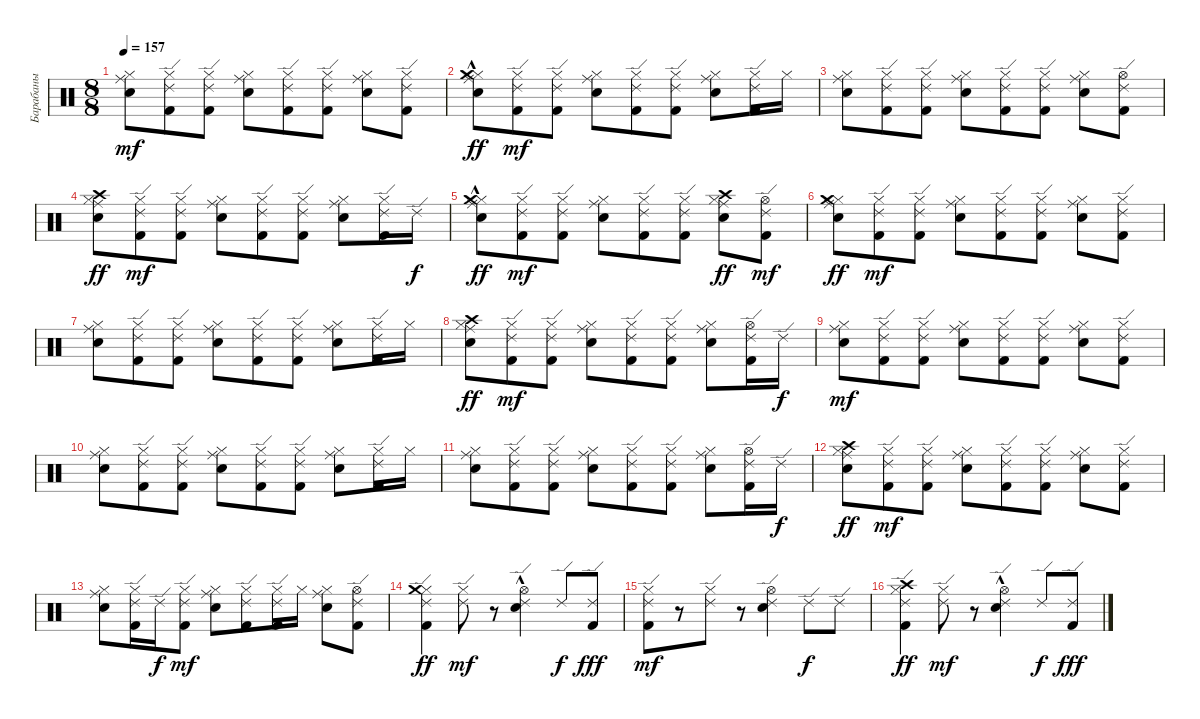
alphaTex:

\track ("Барабаны" "Барабаны") {instrument percussion}
\staff {score}
\articulation defaults
\ts (8 8)
\tempo 157
\clef neutral
\ks c
("Snare (hit) 2" "Hi-Hat (closed)" "Ride (middle)").8{dy mf} ("Kick (hit) 2" "Hi-Hat (closed)" "Ride (edge) 2").8 ("Kick (hit) 2" "Hi-Hat (closed)" "Ride (edge) 2").8 ("Snare (hit) 2" "Hi-Hat (closed)" "Ride (middle)").8 ("Kick (hit) 2" "Hi-Hat (closed)" "Ride (edge) 2").8 ("Kick (hit) 2" "Hi-Hat (closed)" "Ride (edge) 2").8 ("Snare (hit) 2" "Hi-Hat (closed)" "Ride (middle)").8 ("Kick (hit) 2" "Hi-Hat (closed)" "Ride (edge) 2").8 |
("Snare (hit) 2" "Hi-Hat (closed)" "Ride (middle)" "Crash medium (hit)"{hac}).8{dy ff} ("Kick (hit) 2" "Hi-Hat (closed)" "Ride (edge) 2").8{dy mf} ("Kick (hit) 2" "Hi-Hat (closed)" "Ride (edge) 2").8 ("Snare (hit) 2" "Hi-Hat (closed)" "Ride (middle)").8 ("Kick (hit) 2" "Hi-Hat (closed)" "Ride (edge) 2").8 ("Kick (hit) 2" "Hi-Hat (closed)" "Ride (edge) 2").8 ("Snare (hit) 2" "Hi-Hat (closed)" "Ride (middle)").8 ("Kick (hit) 2" "Hi-Hat (closed)" "Ride (edge) 2").16 "Hi-Hat (closed)".16 |
("Snare (hit) 2" "Hi-Hat (closed)" "Ride (middle)").8 ("Kick (hit) 2" "Hi-Hat (closed)" "Ride (edge) 2").8 ("Kick (hit) 2" "Hi-Hat (closed)" "Ride (edge) 2").8 ("Snare (hit) 2" "Hi-Hat (closed)" "Ride (middle)").8 ("Kick (hit) 2" "Hi-Hat (closed)" "Ride (edge) 2").8 ("Kick (hit) 2" "Hi-Hat (closed)" "Ride (edge) 2").8 ("Snare (hit) 2" "Hi-Hat (closed)" "Ride (middle)").8 ("Kick (hit) 2" "Hi-Hat (open)" "Ride (edge) 2").8 |
("Snare (hit) 2" "Hi-Hat (closed)" "Ride (middle)" "Crash high (hit)").8{dy ff} ("Kick (hit) 2" "Hi-Hat (closed)" "Ride (edge) 2").8{dy mf} ("Kick (hit) 2" "Hi-Hat (closed)" "Ride (edge) 2").8 ("Snare (hit) 2" "Hi-Hat (closed)" "Ride (middle)").8 ("Kick (hit) 2" "Hi-Hat (closed)" "Ride (edge) 2").8 ("Kick (hit) 2" "Hi-Hat (closed)" "Ride (edge) 2").8 ("Snare (hit) 2" "Hi-Hat (closed)" "Ride (middle)").8 ("Kick (hit) 2" "Hi-Hat (closed)" "Ride (edge) 2").16 "Ride (edge) 2".16{dy f} |
("Snare (hit) 2" "Hi-Hat (closed)" "Ride (middle)" "Crash medium (hit)"{hac}).8{dy ff} ("Kick (hit) 2" "Hi-Hat (closed)" "Ride (edge) 2").8{dy mf} ("Kick (hit) 2" "Hi-Hat (closed)" "Ride (edge) 2").8 ("Snare (hit) 2" "Hi-Hat (closed)" "Ride (middle)").8 ("Kick (hit) 2" "Hi-Hat (closed)" "Ride (edge) 2").8 ("Kick (hit) 2" "Hi-Hat (closed)" "Ride (edge) 2").8 ("Snare (hit) 2" "Hi-Hat (closed)" "Ride (middle)" "Crash high (hit)").8{dy ff} ("Kick (hit) 2" "Hi-Hat (open)" "Ride (edge) 2").8{dy mf} |
("Snare (hit) 2" "Hi-Hat (closed)" "Ride (middle)" "Crash medium (hit)").8{dy ff} ("Kick (hit) 2" "Hi-Hat (closed)" "Ride (edge) 2").8{dy mf} ("Kick (hit) 2" "Hi-Hat (closed)" "Ride (edge) 2").8 ("Snare (hit) 2" "Hi-Hat (closed)" "Ride (middle)").8 ("Kick (hit) 2" "Hi-Hat (closed)" "Ride (edge) 2").8 ("Kick (hit) 2" "Hi-Hat (closed)" "Ride (edge) 2").8 ("Snare (hit) 2" "Hi-Hat (closed)" "Ride (middle)").8 ("Kick (hit) 2" "Hi-Hat (closed)" "Ride (edge) 2").8 |
("Snare (hit) 2" "Hi-Hat (closed)" "Ride (middle)").8 ("Kick (hit) 2" "Hi-Hat (closed)" "Ride (edge) 2").8 ("Kick (hit) 2" "Hi-Hat (closed)" "Ride (edge) 2").8 ("Snare (hit) 2" "Hi-Hat (closed)" "Ride (middle)").8 ("Kick (hit) 2" "Hi-Hat (closed)" "Ride (edge) 2").8 ("Kick (hit) 2" "Hi-Hat (closed)" "Ride (edge) 2").8 ("Snare (hit) 2" "Hi-Hat (closed)" "Ride (middle)").8 ("Kick (hit) 2" "Hi-Hat (closed)" "Ride (edge) 2").16 "Hi-Hat (closed)".16 |
("Snare (hit) 2" "Hi-Hat (closed)" "Ride (middle)" "Crash high (hit)").8{dy ff} ("Kick (hit) 2" "Hi-Hat (closed)" "Ride (edge) 2").8{dy mf} ("Kick (hit) 2" "Hi-Hat (closed)" "Ride (edge) 2").8 ("Snare (hit) 2" "Hi-Hat (closed)" "Ride (middle)").8 ("Kick (hit) 2" "Hi-Hat (closed)" "Ride (edge) 2").8 ("Kick (hit) 2" "Hi-Hat (closed)" "Ride (edge) 2").8 ("Snare (hit) 2" "Hi-Hat (closed)" "Ride (middle)").8 ("Kick (hit) 2" "Hi-Hat (open)" "Ride (edge) 2").16 "Ride (edge) 2".16{dy f} |
("Snare (hit) 2" "Hi-Hat (closed)" "Ride (middle)").8{dy mf} ("Kick (hit) 2" "Hi-Hat (closed)" "Ride (edge) 2").8 ("Kick (hit) 2" "Hi-Hat (closed)" "Ride (edge) 2").8 ("Snare (hit) 2" "Hi-Hat (closed)" "Ride (middle)").8 ("Kick (hit) 2" "Hi-Hat (closed)" "Ride (edge) 2").8 ("Kick (hit) 2" "Hi-Hat (closed)" "Ride (edge) 2").8 ("Snare (hit) 2" "Hi-Hat (closed)" "Ride (middle)").8 ("Kick (hit) 2" "Hi-Hat (closed)" "Ride (edge) 2").8 |
("Snare (hit) 2" "Hi-Hat (closed)" "Ride (middle)").8 ("Kick (hit) 2" "Hi-Hat (closed)" "Ride (edge) 2").8 ("Kick (hit) 2" "Hi-Hat (closed)" "Ride (edge) 2").8 ("Snare (hit) 2" "Hi-Hat (closed)" "Ride (middle)").8 ("Kick (hit) 2" "Hi-Hat (closed)" "Ride (edge) 2").8 ("Kick (hit) 2" "Hi-Hat (closed)" "Ride (edge) 2").8 ("Snare (hit) 2" "Hi-Hat (closed)" "Ride (middle)").8 ("Kick (hit) 2" "Hi-Hat (closed)" "Ride (edge) 2").16 "Hi-Hat (closed)".16 |
("Snare (hit) 2" "Hi-Hat (closed)" "Ride (middle)").8 ("Kick (hit) 2" "Hi-Hat (closed)" "Ride (edge) 2").8 ("Kick (hit) 2" "Hi-Hat (closed)" "Ride (edge) 2").8 ("Snare (hit) 2" "Hi-Hat (closed)" "Ride (middle)").8 ("Kick (hit) 2" "Hi-Hat (closed)" "Ride (edge) 2").8 ("Kick (hit) 2" "Hi-Hat (closed)" "Ride (edge) 2").8 ("Snare (hit) 2" "Hi-Hat (closed)" "Ride (middle)").8 ("Kick (hit) 2" "Hi-Hat (open)" "Ride (edge) 2").16 "Ride (edge) 2".16{dy f} |
("Snare (hit) 2" "Hi-Hat (closed)" "Ride (middle)" "Crash high (hit)").8{dy ff} ("Kick (hit) 2" "Hi-Hat (closed)" "Ride (edge) 2").8{dy mf} ("Kick (hit) 2" "Hi-Hat (closed)" "Ride (edge) 2").8 ("Snare (hit) 2" "Hi-Hat (closed)" "Ride (middle)").8 ("Kick (hit) 2" "Hi-Hat (closed)" "Ride (edge) 2").8 ("Kick (hit) 2" "Hi-Hat (closed)" "Ride (edge) 2").8 ("Snare (hit) 2" "Hi-Hat (closed)" "Ride (middle)").8 ("Kick (hit) 2" "Hi-Hat (closed)" "Ride (edge) 2").8 |
("Snare (hit) 2" "Hi-Hat (closed)" "Ride (middle)").8 ("Kick (hit) 2" "Hi-Hat (closed)" "Ride (edge) 2").16 "Ride (edge) 2".16{dy f} ("Kick (hit) 2" "Hi-Hat (closed)" "Ride (edge) 2").8{dy mf} ("Snare (hit) 2" "Hi-Hat (closed)" "Ride (middle)").8 ("Kick (hit) 2" "Hi-Hat (closed)" "Ride (edge) 2").8 ("Kick (hit) 2" "Hi-Hat (closed)" "Ride (edge) 2").16 "Hi-Hat (closed)".16 ("Snare (hit) 2" "Hi-Hat (closed)" "Ride (middle)").8 ("Kick (hit) 2" "Hi-Hat (open)" "Ride (edge) 2").8 |
("Kick (hit) 2" "Hi-Hat (closed)" "Ride (edge) 2" "Crash medium (hit)").4{dy ff} ("Hi-Hat (closed)" "Ride (edge) 2").8{dy mf} r.8 ("Snare (hit) 2" "Hi-Hat (open)"{hac} "Ride (edge) 2").4 "Ride (edge) 2".8{dy f} ("Kick (hit) 2" "Ride (edge) 2").8{dy fff} |
("Kick (hit) 2" "Hi-Hat (closed)" "Ride (edge) 2").8{dy mf} r.8 ("Hi-Hat (closed)" "Ride (edge) 2").8 r.8 ("Snare (hit) 2" "Hi-Hat (open)" "Ride (edge) 2").4 "Ride (edge) 2".8{dy f} "Ride (edge) 2".8 |
("Kick (hit) 2" "Hi-Hat (closed)" "Ride (edge) 2" "Crash high (hit)").4{dy ff} ("Hi-Hat (closed)" "Ride (edge) 2").8{dy mf} r.8 ("Snare (hit) 2" "Hi-Hat (open)"{hac} "Ride (edge) 2").4 "Ride (edge) 2".8{dy f} ("Kick (hit) 2" "Ride (edge) 2").8{dy fff}
